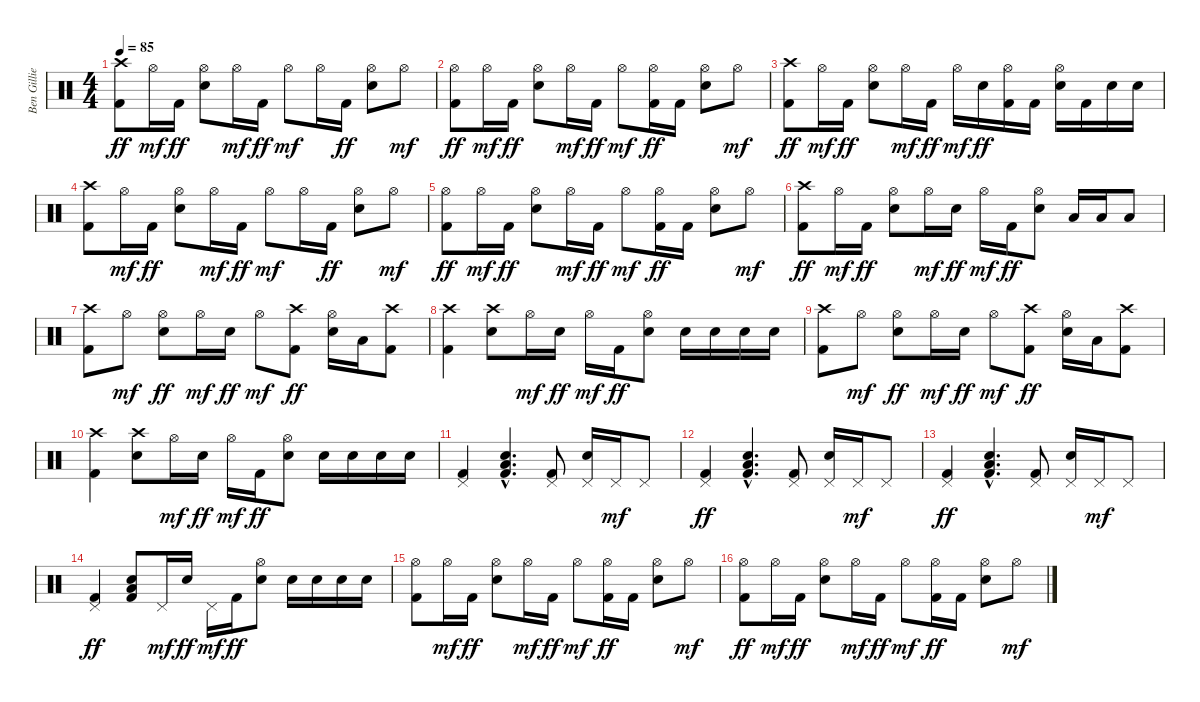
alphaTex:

\track ("Ben Gillies" "Ben Gillie") {instrument percussion}
\staff {score}
\articulation defaults
\ts (4 4)
\tempo 85
\clef neutral
\ks c
("Crash high (hit)" "Kick (hit) 2").8{dy ff} "Hi-Hat (open)".16{dy mf} "Kick (hit) 2".16{dy ff} ("Hi-Hat (open)" "Electric Snare (hit)").8 "Hi-Hat (open)".16{dy mf} "Kick (hit) 2".16{dy ff} "Hi-Hat (open)".8{dy mf} "Hi-Hat (open)".16 "Kick (hit) 2".16{dy ff} ("Hi-Hat (open)" "Electric Snare (hit)").8 "Hi-Hat (open)".8{dy mf} |
("Hi-Hat (open)" "Kick (hit) 2").8{dy ff} "Hi-Hat (open)".16{dy mf} "Kick (hit) 2".16{dy ff} ("Hi-Hat (open)" "Electric Snare (hit)").8 "Hi-Hat (open)".16{dy mf} "Kick (hit) 2".16{dy ff} "Hi-Hat (open)".8{dy mf} ("Hi-Hat (open)" "Kick (hit) 2").16{dy ff} "Kick (hit) 2".16 ("Hi-Hat (open)" "Electric Snare (hit)").8 "Hi-Hat (open)".8{dy mf} |
("Crash high (hit)" "Kick (hit) 2").8{dy ff} "Hi-Hat (open)".16{dy mf} "Kick (hit) 2".16{dy ff} ("Hi-Hat (open)" "Electric Snare (hit)").8 "Hi-Hat (open)".16{dy mf} "Kick (hit) 2".16{dy ff} "Hi-Hat (open)".16{dy mf} "Electric Snare (hit)".16{dy ff} ("Hi-Hat (open)" "Kick (hit) 2").16 "Kick (hit) 2".16 ("Hi-Hat (open)" "Electric Snare (hit)").16 "Kick (hit) 2".16 "Electric Snare (hit)".16 "Electric Snare (hit)".16 |
("Crash high (hit)" "Kick (hit) 2").8 "Hi-Hat (open)".16{dy mf} "Kick (hit) 2".16{dy ff} ("Hi-Hat (open)" "Electric Snare (hit)").8 "Hi-Hat (open)".16{dy mf} "Kick (hit) 2".16{dy ff} "Hi-Hat (open)".8{dy mf} "Hi-Hat (open)".16 "Kick (hit) 2".16{dy ff} ("Hi-Hat (open)" "Electric Snare (hit)").8 "Hi-Hat (open)".8{dy mf} |
("Hi-Hat (open)" "Kick (hit) 2").8{dy ff} "Hi-Hat (open)".16{dy mf} "Kick (hit) 2".16{dy ff} ("Hi-Hat (open)" "Electric Snare (hit)").8 "Hi-Hat (open)".16{dy mf} "Kick (hit) 2".16{dy ff} "Hi-Hat (open)".8{dy mf} ("Hi-Hat (open)" "Kick (hit) 2").16{dy ff} "Kick (hit) 2".16 ("Hi-Hat (open)" "Electric Snare (hit)").8 "Hi-Hat (open)".8{dy mf} |
("Crash high (hit)" "Kick (hit) 2").8{dy ff} "Hi-Hat (open)".16{dy mf} "Kick (hit) 2".16{dy ff} ("Hi-Hat (open)" "Electric Snare (hit)").8 "Hi-Hat (open)".16{dy mf} "Electric Snare (hit)".16{dy ff} "Hi-Hat (open)".16{dy mf} "Kick (hit) 2".16{dy ff} ("Hi-Hat (open)" "Electric Snare (hit)").8 "Low Tom (hit)".16 "Low Tom (hit)".16 "Low Floor Tom (hit)".8 |
("Crash high (hit)" "Kick (hit) 2").8 "Hi-Hat (open)".8{dy mf} ("Hi-Hat (open)" "Electric Snare (hit)").8{dy ff} "Hi-Hat (open)".16{dy mf} "Electric Snare (hit)".16{dy ff} "Hi-Hat (open)".8{dy mf} ("Crash high (hit)" "Kick (hit) 2").8{dy ff} ("Hi-Hat (open)" "Electric Snare (hit)").16 "Low Floor Tom (hit)".16 ("Crash high (hit)" "Kick (hit) 2").8 |
("Crash high (hit)" "Kick (hit) 2").4 ("Crash high (hit)" "Electric Snare (hit)").8 "Hi-Hat (open)".16{dy mf} "Electric Snare (hit)".16{dy ff} "Hi-Hat (open)".16{dy mf} "Kick (hit) 2".16{dy ff} ("Hi-Hat (open)" "Electric Snare (hit)").8 "Electric Snare (hit)".16 "Electric Snare (hit)".16 "Electric Snare (hit)".16 "Electric Snare (hit)".16 |
("Crash high (hit)" "Kick (hit) 2").8 "Hi-Hat (open)".8{dy mf} ("Hi-Hat (open)" "Electric Snare (hit)").8{dy ff} "Hi-Hat (open)".16{dy mf} "Electric Snare (hit)".16{dy ff} "Hi-Hat (open)".8{dy mf} ("Crash high (hit)" "Kick (hit) 2").8{dy ff} ("Hi-Hat (open)" "Electric Snare (hit)").16 "Low Floor Tom (hit)".16 ("Crash high (hit)" "Kick (hit) 2").8 |
("Crash high (hit)" "Kick (hit) 2").4 ("Crash high (hit)" "Electric Snare (hit)").8 "Hi-Hat (open)".16{dy mf} "Electric Snare (hit)".16{dy ff} "Hi-Hat (open)".16{dy mf} "Kick (hit) 2".16{dy ff} ("Hi-Hat (open)" "Electric Snare (hit)").8 "Electric Snare (hit)".16 "Electric Snare (hit)".16 "Electric Snare (hit)".16 "Electric Snare (hit)".16 |
("Pedal Hi-Hat (hit)" "Kick (hit) 2").4 ("Low Floor Tom (hit)"{hac} "Electric Snare (hit)"{hac} "Kick (hit) 2"{hac}).4{d} ("Pedal Hi-Hat (hit)" "Kick (hit) 2").8 ("Pedal Hi-Hat (hit)" "Electric Snare (hit)").16 "Pedal Hi-Hat (hit)".16{dy mf} "Pedal Hi-Hat (hit)".8 |
("Pedal Hi-Hat (hit)" "Kick (hit) 2").4{dy ff} ("Low Floor Tom (hit)"{hac} "Electric Snare (hit)"{hac} "Kick (hit) 2"{hac}).4{d} ("Pedal Hi-Hat (hit)" "Kick (hit) 2").8 ("Pedal Hi-Hat (hit)" "Electric Snare (hit)").16 "Pedal Hi-Hat (hit)".16{dy mf} "Pedal Hi-Hat (hit)".8 |
("Pedal Hi-Hat (hit)" "Kick (hit) 2").4{dy ff} ("Low Floor Tom (hit)"{hac} "Electric Snare (hit)"{hac} "Kick (hit) 2"{hac}).4{d} ("Pedal Hi-Hat (hit)" "Kick (hit) 2").8 ("Pedal Hi-Hat (hit)" "Electric Snare (hit)").16 "Pedal Hi-Hat (hit)".16{dy mf} "Pedal Hi-Hat (hit)".8 |
("Pedal Hi-Hat (hit)" "Kick (hit) 2").4{dy ff} ("Low Floor Tom (hit)" "Electric Snare (hit)" "Kick (hit) 2").8 "Pedal Hi-Hat (hit)".16{dy mf} "Electric Snare (hit)".16{dy ff} "Pedal Hi-Hat (hit)".16{dy mf} "Kick (hit) 2".16{dy ff} ("Hi-Hat (open)" "Electric Snare (hit)").8 "Electric Snare (hit)".16 "Electric Snare (hit)".16 "Electric Snare (hit)".16 "Electric Snare (hit)".16 |
("Hi-Hat (open)" "Kick (hit) 2").8 "Hi-Hat (open)".16{dy mf} "Kick (hit) 2".16{dy ff} ("Hi-Hat (open)" "Electric Snare (hit)").8 "Hi-Hat (open)".16{dy mf} "Kick (hit) 2".16{dy ff} "Hi-Hat (open)".8{dy mf} ("Hi-Hat (open)" "Kick (hit) 2").16{dy ff} "Kick (hit) 2".16 ("Hi-Hat (open)" "Electric Snare (hit)").8 "Hi-Hat (open)".8{dy mf} |
("Hi-Hat (open)" "Kick (hit) 2").8{dy ff} "Hi-Hat (open)".16{dy mf} "Kick (hit) 2".16{dy ff} ("Hi-Hat (open)" "Electric Snare (hit)").8 "Hi-Hat (open)".16{dy mf} "Kick (hit) 2".16{dy ff} "Hi-Hat (open)".8{dy mf} ("Hi-Hat (open)" "Kick (hit) 2").16{dy ff} "Kick (hit) 2".16 ("Hi-Hat (open)" "Electric Snare (hit)").8 "Hi-Hat (open)".8{dy mf}
